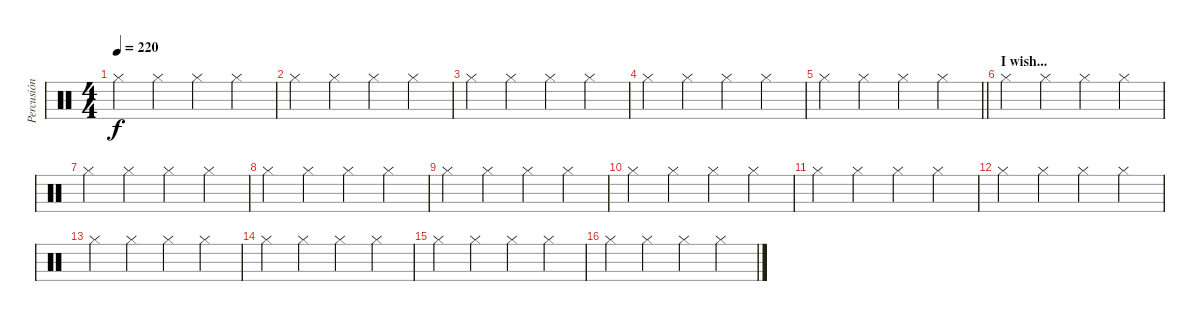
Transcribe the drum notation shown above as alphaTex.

\track ("Percusión" "Percusión") {instrument percussion}
\staff {score}
\articulation defaults
\ts (4 4)
\tempo 220
\clef neutral
\ks c "Hi-Hat (closed)".4{dy f} "Hi-Hat (closed)".4 "Hi-Hat (closed)".4 "Hi-Hat (closed)".4
|
"Hi-Hat (closed)".4 "Hi-Hat (closed)".4 "Hi-Hat (closed)".4 "Hi-Hat (closed)".4 |
"Hi-Hat (closed)".4 "Hi-Hat (closed)".4 "Hi-Hat (closed)".4 "Hi-Hat (closed)".4 |
"Hi-Hat (closed)".4 "Hi-Hat (closed)".4 "Hi-Hat (closed)".4 "Hi-Hat (closed)".4 |
\barLineRight lightlight "Hi-Hat (closed)".4 "Hi-Hat (closed)".4 "Hi-Hat (closed)".4 "Hi-Hat (closed)".4
|
\section ("" "I wish...")
"Hi-Hat (closed)".4 "Hi-Hat (closed)".4 "Hi-Hat (closed)".4 "Hi-Hat (closed)".4 |
"Hi-Hat (closed)".4 "Hi-Hat (closed)".4 "Hi-Hat (closed)".4 "Hi-Hat (closed)".4 |
"Hi-Hat (closed)".4 "Hi-Hat (closed)".4 "Hi-Hat (closed)".4 "Hi-Hat (closed)".4 |
"Hi-Hat (closed)".4 "Hi-Hat (closed)".4 "Hi-Hat (closed)".4 "Hi-Hat (closed)".4 |
"Hi-Hat (closed)".4 "Hi-Hat (closed)".4 "Hi-Hat (closed)".4 "Hi-Hat (closed)".4 |
"Hi-Hat (closed)".4 "Hi-Hat (closed)".4 "Hi-Hat (closed)".4 "Hi-Hat (closed)".4 |
"Hi-Hat (closed)".4 "Hi-Hat (closed)".4 "Hi-Hat (closed)".4 "Hi-Hat (closed)".4 |
"Hi-Hat (closed)".4 "Hi-Hat (closed)".4 "Hi-Hat (closed)".4 "Hi-Hat (closed)".4 |
"Hi-Hat (closed)".4 "Hi-Hat (closed)".4 "Hi-Hat (closed)".4 "Hi-Hat (closed)".4 |
"Hi-Hat (closed)".4 "Hi-Hat (closed)".4 "Hi-Hat (closed)".4 "Hi-Hat (closed)".4 |
"Hi-Hat (closed)".4 "Hi-Hat (closed)".4 "Hi-Hat (closed)".4 "Hi-Hat (closed)".4
